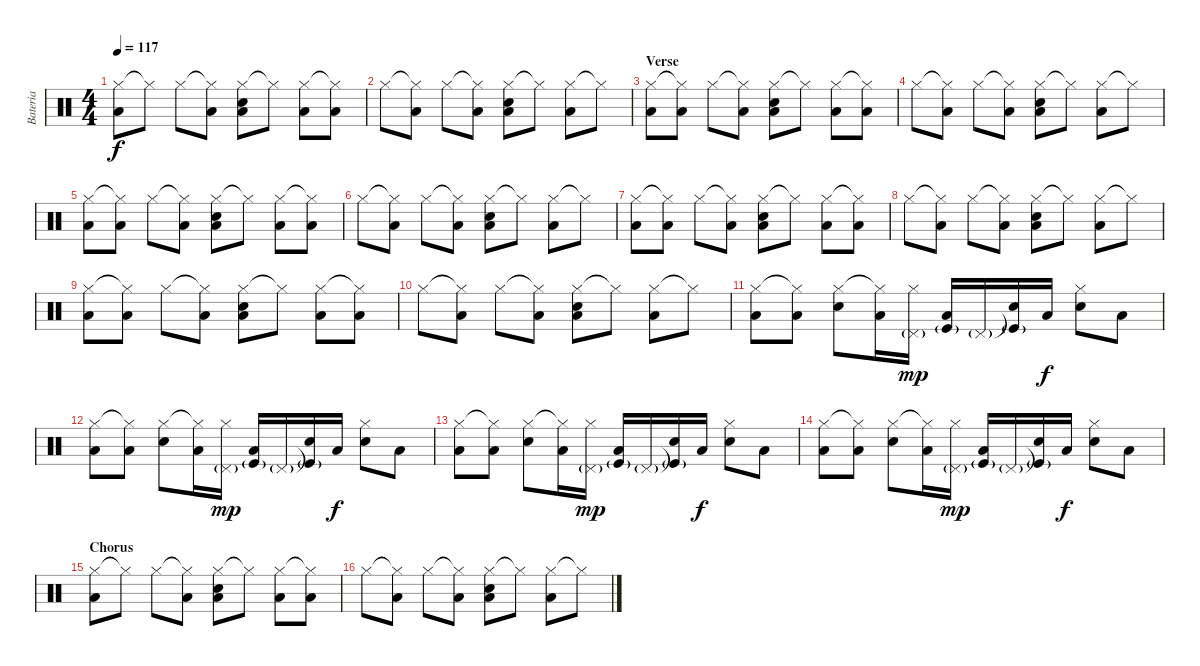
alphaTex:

\track ("Bateria" "Bateria") {instrument percussion}
\staff {score}
\articulation defaults
\ts (4 4)
\tempo 117
\clef neutral
\ks c
("Hi-Hat (closed)" "Low Tom (hit)").8{dy f} "Hi-Hat (closed)"{t}.8 "Hi-Hat (closed)".8 ("Hi-Hat (closed)"{t} "Low Tom (hit)").8 ("Hi-Hat (closed)" "Snare (hit) 2" "Low Tom (hit)").8 "Hi-Hat (closed)"{t}.8 ("Hi-Hat (closed)" "Low Tom (hit)").8 ("Hi-Hat (closed)"{t} "Low Tom (hit)").8 |
"Hi-Hat (closed)".8 ("Hi-Hat (closed)"{t} "Low Tom (hit)").8 "Hi-Hat (closed)".8 ("Hi-Hat (closed)"{t} "Low Tom (hit)").8 ("Hi-Hat (closed)" "Snare (hit) 2" "Low Tom (hit)").8 "Hi-Hat (closed)"{t}.8 ("Hi-Hat (closed)" "Low Tom (hit)").8 "Hi-Hat (closed)"{t}.8 |
\section ("" "Verse")
("Hi-Hat (closed)" "Low Tom (hit)").8 ("Hi-Hat (closed)"{t} "Low Tom (hit)").8 "Hi-Hat (closed)".8 ("Hi-Hat (closed)"{t} "Low Tom (hit)").8 ("Hi-Hat (closed)" "Snare (hit) 2" "Low Tom (hit)").8 "Hi-Hat (closed)"{t}.8 ("Hi-Hat (closed)" "Low Tom (hit)").8 ("Hi-Hat (closed)"{t} "Low Tom (hit)").8 |
"Hi-Hat (closed)".8 ("Hi-Hat (closed)"{t} "Low Tom (hit)").8 "Hi-Hat (closed)".8 ("Hi-Hat (closed)"{t} "Low Tom (hit)").8 ("Hi-Hat (closed)" "Snare (hit) 2" "Low Tom (hit)").8 "Hi-Hat (closed)"{t}.8 ("Hi-Hat (closed)" "Low Tom (hit)").8 "Hi-Hat (closed)"{t}.8 |
("Hi-Hat (closed)" "Low Tom (hit)").8 ("Hi-Hat (closed)"{t} "Low Tom (hit)").8 "Hi-Hat (closed)".8 ("Hi-Hat (closed)"{t} "Low Tom (hit)").8 ("Hi-Hat (closed)" "Snare (hit) 2" "Low Tom (hit)").8 "Hi-Hat (closed)"{t}.8 ("Hi-Hat (closed)" "Low Tom (hit)").8 ("Hi-Hat (closed)"{t} "Low Tom (hit)").8 |
"Hi-Hat (closed)".8 ("Hi-Hat (closed)"{t} "Low Tom (hit)").8 "Hi-Hat (closed)".8 ("Hi-Hat (closed)"{t} "Low Tom (hit)").8 ("Hi-Hat (closed)" "Snare (hit) 2" "Low Tom (hit)").8 "Hi-Hat (closed)"{t}.8 ("Hi-Hat (closed)" "Low Tom (hit)").8 "Hi-Hat (closed)"{t}.8 |
("Hi-Hat (closed)" "Low Tom (hit)").8 ("Hi-Hat (closed)"{t} "Low Tom (hit)").8 "Hi-Hat (closed)".8 ("Hi-Hat (closed)"{t} "Low Tom (hit)").8 ("Hi-Hat (closed)" "Snare (hit) 2" "Low Tom (hit)").8 "Hi-Hat (closed)"{t}.8 ("Hi-Hat (closed)" "Low Tom (hit)").8 ("Hi-Hat (closed)"{t} "Low Tom (hit)").8 |
"Hi-Hat (closed)".8 ("Hi-Hat (closed)"{t} "Low Tom (hit)").8 "Hi-Hat (closed)".8 ("Hi-Hat (closed)"{t} "Low Tom (hit)").8 ("Hi-Hat (closed)" "Snare (hit) 2" "Low Tom (hit)").8 "Hi-Hat (closed)"{t}.8 ("Hi-Hat (closed)" "Low Tom (hit)").8 "Hi-Hat (closed)"{t}.8 |
("Hi-Hat (closed)" "Low Tom (hit)").8 ("Hi-Hat (closed)"{t} "Low Tom (hit)").8 "Hi-Hat (closed)".8 ("Hi-Hat (closed)"{t} "Low Tom (hit)").8 ("Hi-Hat (closed)" "Snare (hit) 2" "Low Tom (hit)").8 "Hi-Hat (closed)"{t}.8 ("Hi-Hat (closed)" "Low Tom (hit)").8 ("Hi-Hat (closed)"{t} "Low Tom (hit)").8 |
"Hi-Hat (closed)".8 ("Hi-Hat (closed)"{t} "Low Tom (hit)").8 "Hi-Hat (closed)".8 ("Hi-Hat (closed)"{t} "Low Tom (hit)").8 ("Hi-Hat (closed)" "Snare (hit) 2" "Low Tom (hit)").8 "Hi-Hat (closed)"{t}.8 ("Hi-Hat (closed)" "Low Tom (hit)").8 "Hi-Hat (closed)"{t}.8 |
("Hi-Hat (closed)" "Low Tom (hit)").8 ("Hi-Hat (closed)"{t} "Low Tom (hit)").8 ("Hi-Hat (closed)" "Snare (hit) 2").8 ("Hi-Hat (closed)"{t} "Low Tom (hit)").16 ("Hi-Hat (closed)" "Pedal Hi-Hat (hit)"{g}).16{dy mp} ("Kick (hit)"{g} "Low Tom (hit)").16 "Pedal Hi-Hat (hit)"{g}.16 ("Snare (hit)"{t} "Kick (hit)"{g}).16 "Low Tom (hit)".16{dy f} ("Hi-Hat (closed)" "Snare (hit) 2").8 "Low Tom (hit)".8 |
("Hi-Hat (closed)" "Low Tom (hit)").8 ("Hi-Hat (closed)"{t} "Low Tom (hit)").8 ("Hi-Hat (closed)" "Snare (hit) 2").8 ("Hi-Hat (closed)"{t} "Low Tom (hit)").16 ("Hi-Hat (closed)" "Pedal Hi-Hat (hit)"{g}).16{dy mp} ("Kick (hit)"{g} "Low Tom (hit)").16 "Pedal Hi-Hat (hit)"{g}.16 ("Snare (hit)"{t} "Kick (hit)"{g}).16 "Low Tom (hit)".16{dy f} ("Hi-Hat (closed)" "Snare (hit) 2").8 "Low Tom (hit)".8 |
("Hi-Hat (closed)" "Low Tom (hit)").8 ("Hi-Hat (closed)"{t} "Low Tom (hit)").8 ("Hi-Hat (closed)" "Snare (hit) 2").8 ("Hi-Hat (closed)"{t} "Low Tom (hit)").16 ("Hi-Hat (closed)" "Pedal Hi-Hat (hit)"{g}).16{dy mp} ("Kick (hit)"{g} "Low Tom (hit)").16 "Pedal Hi-Hat (hit)"{g}.16 ("Snare (hit)"{t} "Kick (hit)"{g}).16 "Low Tom (hit)".16{dy f} ("Hi-Hat (closed)" "Snare (hit) 2").8 "Low Tom (hit)".8 |
("Hi-Hat (closed)" "Low Tom (hit)").8 ("Hi-Hat (closed)"{t} "Low Tom (hit)").8 ("Hi-Hat (closed)" "Snare (hit) 2").8 ("Hi-Hat (closed)"{t} "Low Tom (hit)").16 ("Hi-Hat (closed)" "Pedal Hi-Hat (hit)"{g}).16{dy mp} ("Kick (hit)"{g} "Low Tom (hit)").16 "Pedal Hi-Hat (hit)"{g}.16 ("Snare (hit)"{t} "Kick (hit)"{g}).16 "Low Tom (hit)".16{dy f} ("Hi-Hat (closed)" "Snare (hit) 2").8 "Low Tom (hit)".8 |
\section ("" "Chorus")
("Hi-Hat (closed)" "Low Tom (hit)").8 "Hi-Hat (closed)"{t}.8 "Hi-Hat (closed)".8 ("Hi-Hat (closed)"{t} "Low Tom (hit)").8 ("Hi-Hat (closed)" "Snare (hit) 2" "Low Tom (hit)").8 "Hi-Hat (closed)"{t}.8 ("Hi-Hat (closed)" "Low Tom (hit)").8 ("Hi-Hat (closed)"{t} "Low Tom (hit)").8 |
"Hi-Hat (closed)".8 ("Hi-Hat (closed)"{t} "Low Tom (hit)").8 "Hi-Hat (closed)".8 ("Hi-Hat (closed)"{t} "Low Tom (hit)").8 ("Hi-Hat (closed)" "Snare (hit) 2" "Low Tom (hit)").8 "Hi-Hat (closed)"{t}.8 ("Hi-Hat (closed)" "Low Tom (hit)").8 "Hi-Hat (closed)"{t}.8
